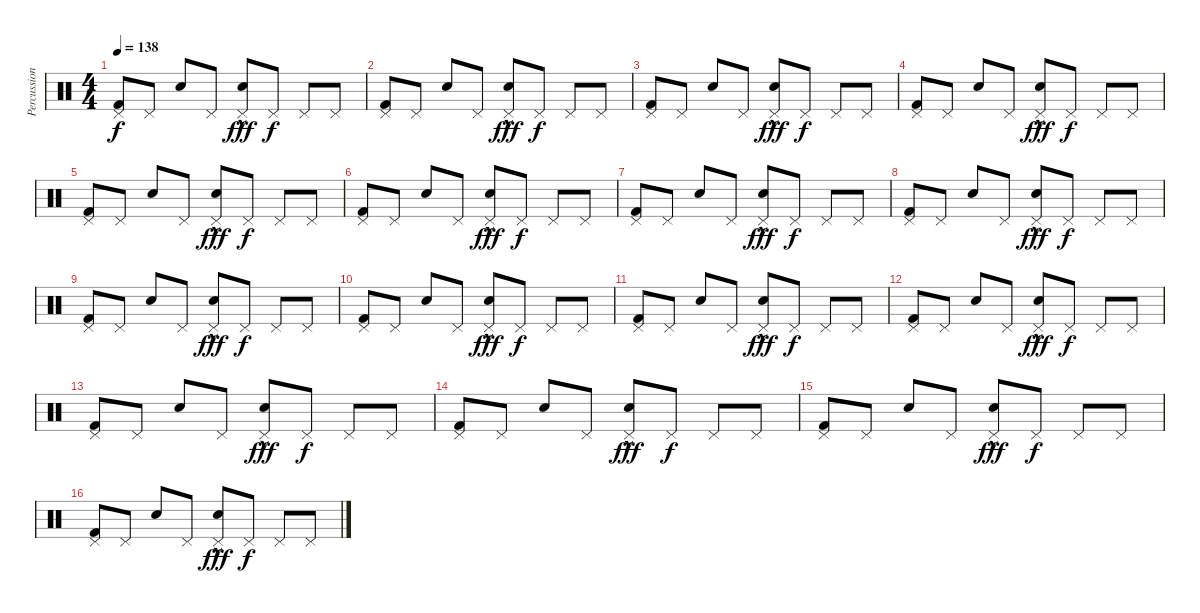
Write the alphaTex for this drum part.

\track ("Percussion" "Percussion") {instrument percussion}
\staff {score}
\articulation defaults
\ts (4 4)
\tempo 138
\clef neutral
\ks c
("Kick (hit) 2" "Pedal Hi-Hat (hit)").8{dy f} "Pedal Hi-Hat (hit)".8 "Snare (hit)".8 "Pedal Hi-Hat (hit)".8 ("Snare (hit) 2"{hac} "Pedal Hi-Hat (hit)").8{dy fff} "Pedal Hi-Hat (hit)".8{dy f} "Pedal Hi-Hat (hit)".8 "Pedal Hi-Hat (hit)".8 |
("Kick (hit) 2" "Pedal Hi-Hat (hit)").8 "Pedal Hi-Hat (hit)".8 "Snare (hit)".8 "Pedal Hi-Hat (hit)".8 ("Snare (hit) 2"{hac} "Pedal Hi-Hat (hit)").8{dy fff} "Pedal Hi-Hat (hit)".8{dy f} "Pedal Hi-Hat (hit)".8 "Pedal Hi-Hat (hit)".8 |
("Kick (hit) 2" "Pedal Hi-Hat (hit)").8 "Pedal Hi-Hat (hit)".8 "Snare (hit)".8 "Pedal Hi-Hat (hit)".8 ("Snare (hit) 2"{hac} "Pedal Hi-Hat (hit)").8{dy fff} "Pedal Hi-Hat (hit)".8{dy f} "Pedal Hi-Hat (hit)".8 "Pedal Hi-Hat (hit)".8 |
("Kick (hit) 2" "Pedal Hi-Hat (hit)").8 "Pedal Hi-Hat (hit)".8 "Snare (hit)".8 "Pedal Hi-Hat (hit)".8 ("Snare (hit) 2"{hac} "Pedal Hi-Hat (hit)").8{dy fff} "Pedal Hi-Hat (hit)".8{dy f} "Pedal Hi-Hat (hit)".8 "Pedal Hi-Hat (hit)".8 |
("Kick (hit) 2" "Pedal Hi-Hat (hit)").8 "Pedal Hi-Hat (hit)".8 "Snare (hit)".8 "Pedal Hi-Hat (hit)".8 ("Snare (hit) 2"{hac} "Pedal Hi-Hat (hit)").8{dy fff} "Pedal Hi-Hat (hit)".8{dy f} "Pedal Hi-Hat (hit)".8 "Pedal Hi-Hat (hit)".8 |
("Kick (hit) 2" "Pedal Hi-Hat (hit)").8 "Pedal Hi-Hat (hit)".8 "Snare (hit)".8 "Pedal Hi-Hat (hit)".8 ("Snare (hit) 2"{hac} "Pedal Hi-Hat (hit)").8{dy fff} "Pedal Hi-Hat (hit)".8{dy f} "Pedal Hi-Hat (hit)".8 "Pedal Hi-Hat (hit)".8 |
("Kick (hit) 2" "Pedal Hi-Hat (hit)").8 "Pedal Hi-Hat (hit)".8 "Snare (hit)".8 "Pedal Hi-Hat (hit)".8 ("Snare (hit) 2"{hac} "Pedal Hi-Hat (hit)").8{dy fff} "Pedal Hi-Hat (hit)".8{dy f} "Pedal Hi-Hat (hit)".8 "Pedal Hi-Hat (hit)".8 |
("Kick (hit) 2" "Pedal Hi-Hat (hit)").8 "Pedal Hi-Hat (hit)".8 "Snare (hit)".8 "Pedal Hi-Hat (hit)".8 ("Snare (hit) 2"{hac} "Pedal Hi-Hat (hit)").8{dy fff} "Pedal Hi-Hat (hit)".8{dy f} "Pedal Hi-Hat (hit)".8 "Pedal Hi-Hat (hit)".8 |
("Kick (hit) 2" "Pedal Hi-Hat (hit)").8 "Pedal Hi-Hat (hit)".8 "Snare (hit)".8 "Pedal Hi-Hat (hit)".8 ("Snare (hit) 2"{hac} "Pedal Hi-Hat (hit)").8{dy fff} "Pedal Hi-Hat (hit)".8{dy f} "Pedal Hi-Hat (hit)".8 "Pedal Hi-Hat (hit)".8 |
("Kick (hit) 2" "Pedal Hi-Hat (hit)").8 "Pedal Hi-Hat (hit)".8 "Snare (hit)".8 "Pedal Hi-Hat (hit)".8 ("Snare (hit) 2"{hac} "Pedal Hi-Hat (hit)").8{dy fff} "Pedal Hi-Hat (hit)".8{dy f} "Pedal Hi-Hat (hit)".8 "Pedal Hi-Hat (hit)".8 |
("Kick (hit) 2" "Pedal Hi-Hat (hit)").8 "Pedal Hi-Hat (hit)".8 "Snare (hit)".8 "Pedal Hi-Hat (hit)".8 ("Snare (hit) 2"{hac} "Pedal Hi-Hat (hit)").8{dy fff} "Pedal Hi-Hat (hit)".8{dy f} "Pedal Hi-Hat (hit)".8 "Pedal Hi-Hat (hit)".8 |
("Kick (hit) 2" "Pedal Hi-Hat (hit)").8 "Pedal Hi-Hat (hit)".8 "Snare (hit)".8 "Pedal Hi-Hat (hit)".8 ("Snare (hit) 2"{hac} "Pedal Hi-Hat (hit)").8{dy fff} "Pedal Hi-Hat (hit)".8{dy f} "Pedal Hi-Hat (hit)".8 "Pedal Hi-Hat (hit)".8 |
("Kick (hit) 2" "Pedal Hi-Hat (hit)").8 "Pedal Hi-Hat (hit)".8 "Snare (hit)".8 "Pedal Hi-Hat (hit)".8 ("Snare (hit) 2"{hac} "Pedal Hi-Hat (hit)").8{dy fff} "Pedal Hi-Hat (hit)".8{dy f} "Pedal Hi-Hat (hit)".8 "Pedal Hi-Hat (hit)".8 |
("Kick (hit) 2" "Pedal Hi-Hat (hit)").8 "Pedal Hi-Hat (hit)".8 "Snare (hit)".8 "Pedal Hi-Hat (hit)".8 ("Snare (hit) 2"{hac} "Pedal Hi-Hat (hit)").8{dy fff} "Pedal Hi-Hat (hit)".8{dy f} "Pedal Hi-Hat (hit)".8 "Pedal Hi-Hat (hit)".8 |
("Kick (hit) 2" "Pedal Hi-Hat (hit)").8 "Pedal Hi-Hat (hit)".8 "Snare (hit)".8 "Pedal Hi-Hat (hit)".8 ("Snare (hit) 2"{hac} "Pedal Hi-Hat (hit)").8{dy fff} "Pedal Hi-Hat (hit)".8{dy f} "Pedal Hi-Hat (hit)".8 "Pedal Hi-Hat (hit)".8 |
("Kick (hit) 2" "Pedal Hi-Hat (hit)").8 "Pedal Hi-Hat (hit)".8 "Snare (hit)".8 "Pedal Hi-Hat (hit)".8 ("Snare (hit) 2"{hac} "Pedal Hi-Hat (hit)").8{dy fff} "Pedal Hi-Hat (hit)".8{dy f} "Pedal Hi-Hat (hit)".8 "Pedal Hi-Hat (hit)".8
